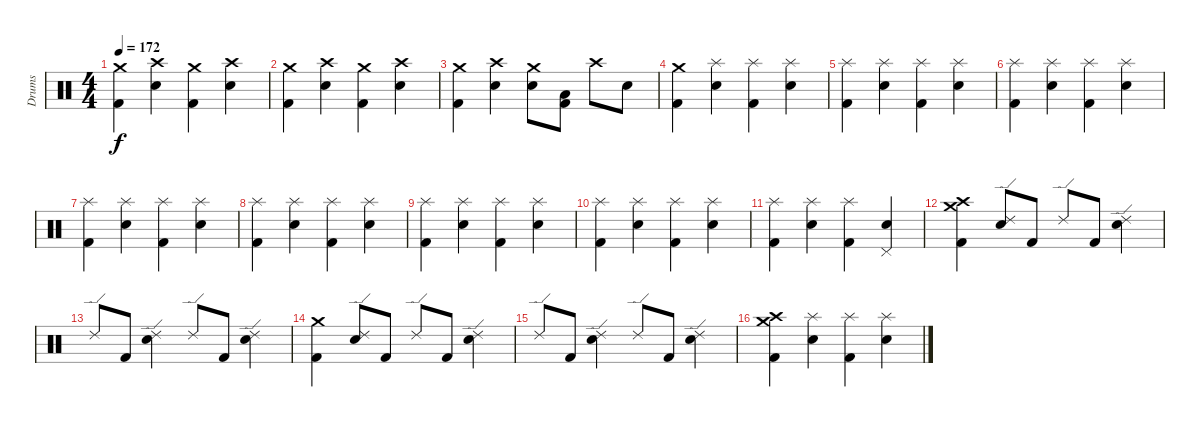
\track ("Drums" "Drums") {instrument percussion}
\staff {score}
\articulation defaults
\ts (4 4)
\tempo 172
\clef neutral
\ks c
("Crash medium (hit)" "Kick (hit) 2").4{dy f} ("Crash high (hit)" "Snare (hit) 2").4 ("Crash medium (hit)" "Kick (hit) 2").4 ("Crash high (hit)" "Snare (hit) 2").4 |
("Crash medium (hit)" "Kick (hit) 2").4 ("Crash high (hit)" "Snare (hit) 2").4 ("Crash medium (hit)" "Kick (hit) 2").4 ("Crash high (hit)" "Snare (hit) 2").4 |
("Crash medium (hit)" "Kick (hit) 2").4 ("Crash high (hit)" "Snare (hit) 2").4 ("Crash medium (hit)" "Snare (hit) 2").8 ("Low Tom (hit)" "Kick (hit) 2").8 "Crash high (hit)".8 "Snare (hit) 2".8 |
("Kick (hit) 2" "Crash medium (hit)").4 ("Splash (hit)" "Snare (hit) 2").4 ("Splash (hit)" "Kick (hit) 2").4 ("Splash (hit)" "Snare (hit) 2").4 |
("Splash (hit)" "Kick (hit) 2").4 ("Splash (hit)" "Snare (hit) 2").4 ("Splash (hit)" "Kick (hit) 2").4 ("Splash (hit)" "Snare (hit) 2").4 |
("Splash (hit)" "Kick (hit) 2").4 ("Splash (hit)" "Snare (hit) 2").4 ("Splash (hit)" "Kick (hit) 2").4 ("Splash (hit)" "Snare (hit) 2").4 |
("Splash (hit)" "Kick (hit) 2").4 ("Splash (hit)" "Snare (hit) 2").4 ("Splash (hit)" "Kick (hit) 2").4 ("Splash (hit)" "Snare (hit) 2").4 |
("Splash (hit)" "Kick (hit) 2").4 ("Splash (hit)" "Snare (hit) 2").4 ("Splash (hit)" "Kick (hit) 2").4 ("Splash (hit)" "Snare (hit) 2").4 |
("Splash (hit)" "Kick (hit) 2").4 ("Splash (hit)" "Snare (hit) 2").4 ("Splash (hit)" "Kick (hit) 2").4 ("Splash (hit)" "Snare (hit) 2").4 |
("Splash (hit)" "Kick (hit) 2").4 ("Splash (hit)" "Snare (hit) 2").4 ("Splash (hit)" "Kick (hit) 2").4 ("Splash (hit)" "Snare (hit) 2").4 |
("Splash (hit)" "Kick (hit) 2").4 ("Splash (hit)" "Snare (hit) 2").4 ("Splash (hit)" "Kick (hit) 2").4 ("Pedal Hi-Hat (hit)" "Snare (hit) 2").4 |
("Crash high (hit)" "Crash medium (hit)" "Kick (hit) 2").4 ("Ride (edge) 2" "Snare (hit) 2").8 "Kick (hit) 2".8 "Ride (edge) 2".8 "Kick (hit) 2".8 ("Ride (edge) 2" "Snare (hit) 2").4 |
"Ride (edge) 2".8 "Kick (hit) 2".8 ("Ride (edge) 2" "Snare (hit) 2").4 "Ride (edge) 2".8 "Kick (hit) 2".8 ("Ride (edge) 2" "Snare (hit) 2").4 |
("Kick (hit) 2" "Crash medium (hit)").4 ("Ride (edge) 2" "Snare (hit) 2").8 "Kick (hit) 2".8 "Ride (edge) 2".8 "Kick (hit) 2".8 ("Ride (edge) 2" "Snare (hit) 2").4 |
"Ride (edge) 2".8 "Kick (hit) 2".8 ("Ride (edge) 2" "Snare (hit) 2").4 "Ride (edge) 2".8 "Kick (hit) 2".8 ("Ride (edge) 2" "Snare (hit) 2").4 |
("Crash high (hit)" "Crash medium (hit)" "Kick (hit) 2").4 ("Splash (hit)" "Snare (hit) 2").4 ("Splash (hit)" "Kick (hit) 2").4 ("Splash (hit)" "Snare (hit) 2").4
